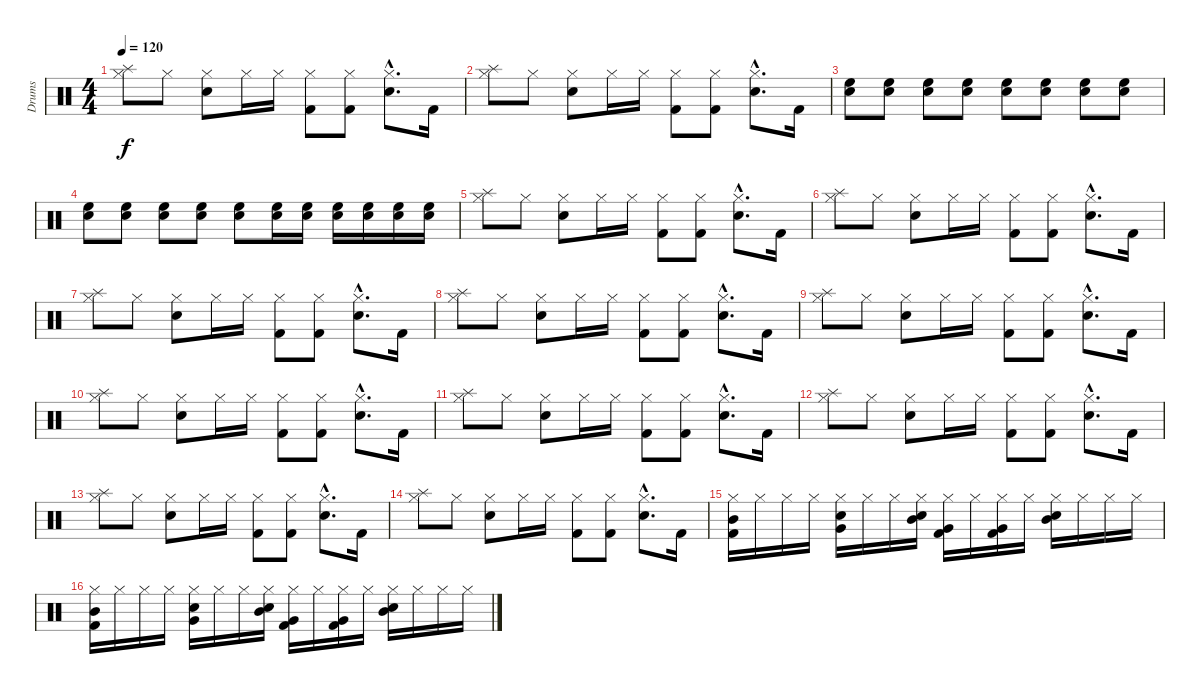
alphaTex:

\track ("Drums" "Drums") {instrument percussion}
\staff {score}
\articulation defaults
\ts (4 4)
\tempo 120
\clef neutral
\ks c
("Splash (hit)" "Hi-Hat (closed)").8{dy f} "Hi-Hat (closed)".8 ("Snare (hit) 2" "Hi-Hat (closed)").8 "Hi-Hat (closed)".16 "Hi-Hat (closed)".16 ("Kick (hit) 2" "Hi-Hat (closed)").8 ("Kick (hit) 2" "Hi-Hat (closed)").8 ("Snare (hit) 2"{hac} "Hi-Hat (closed)"{hac}).8{d} "Kick (hit) 2".16 |
("Splash (hit)" "Hi-Hat (closed)").8 "Hi-Hat (closed)".8 ("Snare (hit) 2" "Hi-Hat (closed)").8 "Hi-Hat (closed)".16 "Hi-Hat (closed)".16 ("Kick (hit) 2" "Hi-Hat (closed)").8 ("Kick (hit) 2" "Hi-Hat (closed)").8 ("Snare (hit) 2"{hac} "Hi-Hat (closed)"{hac}).8{d} "Kick (hit) 2".16 |
("Snare (hit) 2" "High Floor Tom (hit)").8 ("Snare (hit) 2" "High Floor Tom (hit)").8 ("Snare (hit) 2" "High Floor Tom (hit)").8 ("Snare (hit) 2" "High Floor Tom (hit)").8 ("Snare (hit) 2" "High Floor Tom (hit)").8 ("Snare (hit) 2" "High Floor Tom (hit)").8 ("Snare (hit) 2" "High Floor Tom (hit)").8 ("Snare (hit) 2" "High Floor Tom (hit)").8 |
("Snare (hit) 2" "High Floor Tom (hit)").8 ("Snare (hit) 2" "High Floor Tom (hit)").8 ("Snare (hit) 2" "High Floor Tom (hit)").8 ("Snare (hit) 2" "High Floor Tom (hit)").8 ("Snare (hit) 2" "High Floor Tom (hit)").8 ("Snare (hit) 2" "High Floor Tom (hit)").16 ("Snare (hit) 2" "High Floor Tom (hit)").16 ("Snare (hit) 2" "High Floor Tom (hit)").16 ("Snare (hit) 2" "High Floor Tom (hit)").16 ("Snare (hit) 2" "High Floor Tom (hit)").16 ("Snare (hit) 2" "High Floor Tom (hit)").16 |
("Splash (hit)" "Hi-Hat (closed)").8 "Hi-Hat (closed)".8 ("Snare (hit) 2" "Hi-Hat (closed)").8 "Hi-Hat (closed)".16 "Hi-Hat (closed)".16 ("Kick (hit) 2" "Hi-Hat (closed)").8 ("Kick (hit) 2" "Hi-Hat (closed)").8 ("Snare (hit) 2"{hac} "Hi-Hat (closed)"{hac}).8{d} "Kick (hit) 2".16 |
("Splash (hit)" "Hi-Hat (closed)").8 "Hi-Hat (closed)".8 ("Snare (hit) 2" "Hi-Hat (closed)").8 "Hi-Hat (closed)".16 "Hi-Hat (closed)".16 ("Kick (hit) 2" "Hi-Hat (closed)").8 ("Kick (hit) 2" "Hi-Hat (closed)").8 ("Snare (hit) 2"{hac} "Hi-Hat (closed)"{hac}).8{d} "Kick (hit) 2".16 |
("Splash (hit)" "Hi-Hat (closed)").8 "Hi-Hat (closed)".8 ("Snare (hit) 2" "Hi-Hat (closed)").8 "Hi-Hat (closed)".16 "Hi-Hat (closed)".16 ("Kick (hit) 2" "Hi-Hat (closed)").8 ("Kick (hit) 2" "Hi-Hat (closed)").8 ("Snare (hit) 2"{hac} "Hi-Hat (closed)"{hac}).8{d} "Kick (hit) 2".16 |
("Splash (hit)" "Hi-Hat (closed)").8 "Hi-Hat (closed)".8 ("Snare (hit) 2" "Hi-Hat (closed)").8 "Hi-Hat (closed)".16 "Hi-Hat (closed)".16 ("Kick (hit) 2" "Hi-Hat (closed)").8 ("Kick (hit) 2" "Hi-Hat (closed)").8 ("Snare (hit) 2"{hac} "Hi-Hat (closed)"{hac}).8{d} "Kick (hit) 2".16 |
("Splash (hit)" "Hi-Hat (closed)").8 "Hi-Hat (closed)".8 ("Snare (hit) 2" "Hi-Hat (closed)").8 "Hi-Hat (closed)".16 "Hi-Hat (closed)".16 ("Kick (hit) 2" "Hi-Hat (closed)").8 ("Kick (hit) 2" "Hi-Hat (closed)").8 ("Snare (hit) 2"{hac} "Hi-Hat (closed)"{hac}).8{d} "Kick (hit) 2".16 |
("Splash (hit)" "Hi-Hat (closed)").8 "Hi-Hat (closed)".8 ("Snare (hit) 2" "Hi-Hat (closed)").8 "Hi-Hat (closed)".16 "Hi-Hat (closed)".16 ("Kick (hit) 2" "Hi-Hat (closed)").8 ("Kick (hit) 2" "Hi-Hat (closed)").8 ("Snare (hit) 2"{hac} "Hi-Hat (closed)"{hac}).8{d} "Kick (hit) 2".16 |
("Splash (hit)" "Hi-Hat (closed)").8 "Hi-Hat (closed)".8 ("Snare (hit) 2" "Hi-Hat (closed)").8 "Hi-Hat (closed)".16 "Hi-Hat (closed)".16 ("Kick (hit) 2" "Hi-Hat (closed)").8 ("Kick (hit) 2" "Hi-Hat (closed)").8 ("Snare (hit) 2"{hac} "Hi-Hat (closed)"{hac}).8{d} "Kick (hit) 2".16 |
("Splash (hit)" "Hi-Hat (closed)").8 "Hi-Hat (closed)".8 ("Snare (hit) 2" "Hi-Hat (closed)").8 "Hi-Hat (closed)".16 "Hi-Hat (closed)".16 ("Kick (hit) 2" "Hi-Hat (closed)").8 ("Kick (hit) 2" "Hi-Hat (closed)").8 ("Snare (hit) 2"{hac} "Hi-Hat (closed)"{hac}).8{d} "Kick (hit) 2".16 |
("Splash (hit)" "Hi-Hat (closed)").8 "Hi-Hat (closed)".8 ("Snare (hit) 2" "Hi-Hat (closed)").8 "Hi-Hat (closed)".16 "Hi-Hat (closed)".16 ("Kick (hit) 2" "Hi-Hat (closed)").8 ("Kick (hit) 2" "Hi-Hat (closed)").8 ("Snare (hit) 2"{hac} "Hi-Hat (closed)"{hac}).8{d} "Kick (hit) 2".16 |
("Splash (hit)" "Hi-Hat (closed)").8 "Hi-Hat (closed)".8 ("Snare (hit) 2" "Hi-Hat (closed)").8 "Hi-Hat (closed)".16 "Hi-Hat (closed)".16 ("Kick (hit) 2" "Hi-Hat (closed)").8 ("Kick (hit) 2" "Hi-Hat (closed)").8 ("Snare (hit) 2"{hac} "Hi-Hat (closed)"{hac}).8{d} "Kick (hit) 2".16 |
("Hi-Hat (closed)" "Kick (hit) 2" "Mid Tom (hit)").16 "Hi-Hat (closed)".16 "Hi-Hat (closed)".16 "Hi-Hat (closed)".16 ("Hi-Hat (closed)" "Snare (hit) 2" "Very Low Tom (hit)").16 "Hi-Hat (closed)".16 "Hi-Hat (closed)".16 ("Hi-Hat (closed)" "Snare (hit) 2" "Mid Tom (hit)").16 ("Hi-Hat (closed)" "Kick (hit) 2" "Very Low Tom (hit)").16 "Hi-Hat (closed)".16 ("Hi-Hat (closed)" "Kick (hit) 2" "Very Low Tom (hit)").16 "Hi-Hat (closed)".16 ("Hi-Hat (closed)" "Snare (hit) 2" "Mid Tom (hit)").16 "Hi-Hat (closed)".16 "Hi-Hat (closed)".16 "Hi-Hat (closed)".16 |
("Hi-Hat (closed)" "Kick (hit) 2" "Mid Tom (hit)").16 "Hi-Hat (closed)".16 "Hi-Hat (closed)".16 "Hi-Hat (closed)".16 ("Hi-Hat (closed)" "Snare (hit) 2" "Very Low Tom (hit)").16 "Hi-Hat (closed)".16 "Hi-Hat (closed)".16 ("Hi-Hat (closed)" "Snare (hit) 2" "Mid Tom (hit)").16 ("Hi-Hat (closed)" "Kick (hit) 2" "Very Low Tom (hit)").16 "Hi-Hat (closed)".16 ("Hi-Hat (closed)" "Kick (hit) 2" "Very Low Tom (hit)").16 "Hi-Hat (closed)".16 ("Hi-Hat (closed)" "Snare (hit) 2" "Mid Tom (hit)").16 "Hi-Hat (closed)".16 "Hi-Hat (closed)".16 "Hi-Hat (closed)".16
